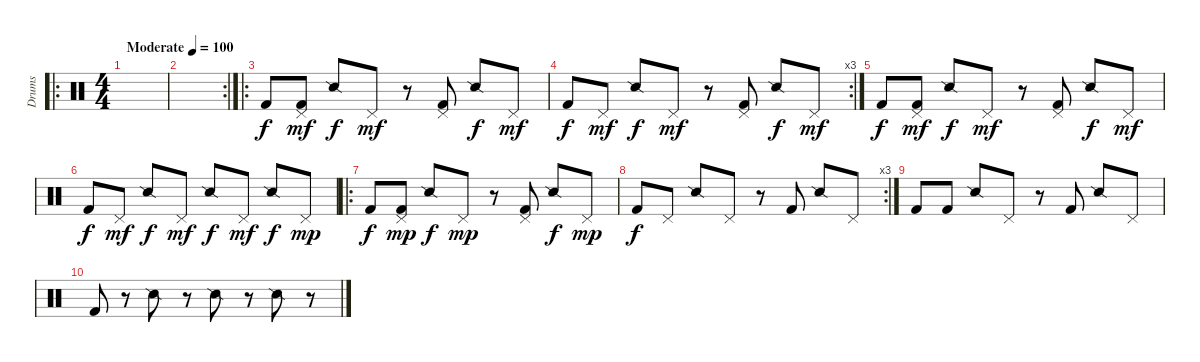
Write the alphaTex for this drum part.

\track ("Drums" "Drums") {instrument percussion}
\staff {score}
\articulation defaults
\ro
\ts (4 4)
\tempo (100 "Moderate")
\clef neutral
\ks c
|
\rc 2
|
\ro "Kick (hit) 2".8
("Kick (hit) 2" "Pedal Hi-Hat (hit)").8{dy mf} "Snare (side stick) 2".8{dy f} "Pedal Hi-Hat (hit)".8{dy mf} r.8 ("Kick (hit) 2" "Pedal Hi-Hat (hit)").8 "Snare (side stick) 2".8{dy f} "Pedal Hi-Hat (hit)".8{dy mf} |
\rc 3 "Kick (hit) 2".8{dy f} "Pedal Hi-Hat (hit)".8{dy mf} "Snare (side stick) 2".8{dy f} "Pedal Hi-Hat (hit)".8{dy mf}
r.8 ("Kick (hit) 2" "Pedal Hi-Hat (hit)").8 "Snare (side stick) 2".8{dy f} "Pedal Hi-Hat (hit)".8{dy mf} |
"Kick (hit) 2".8{dy f} ("Kick (hit) 2" "Pedal Hi-Hat (hit)").8{dy mf} "Snare (side stick) 2".8{dy f} "Pedal Hi-Hat (hit)".8{dy mf} r.8 ("Kick (hit) 2" "Pedal Hi-Hat (hit)").8 "Snare (side stick) 2".8{dy f} "Pedal Hi-Hat (hit)".8{dy mf} |
"Kick (hit) 2".8{dy f} "Pedal Hi-Hat (hit)".8{dy mf} "Snare (side stick) 2".8{dy f} "Pedal Hi-Hat (hit)".8{dy mf} "Snare (side stick) 2".8{dy f} "Pedal Hi-Hat (hit)".8{dy mf} "Snare (side stick) 2".8{dy f} "Pedal Hi-Hat (hit)".8{dy mp} |
\ro "Kick (hit) 2".8{dy f}
("Kick (hit) 2" "Pedal Hi-Hat (hit)").8{dy mp} "Snare (side stick) 2".8{dy f} "Pedal Hi-Hat (hit)".8{dy mp} r.8 ("Kick (hit) 2" "Pedal Hi-Hat (hit)").8 "Snare (side stick) 2".8{dy f} "Pedal Hi-Hat (hit)".8{dy mp} |
\rc 3 "Kick (hit) 2".8{dy f} "Pedal Hi-Hat (hit)".8 "Snare (side stick) 2".8 "Pedal Hi-Hat (hit)".8
r.8 "Kick (hit) 2".8 "Snare (side stick) 2".8 "Pedal Hi-Hat (hit)".8 |
"Kick (hit) 2".8 "Kick (hit) 2".8 "Snare (side stick) 2".8 "Pedal Hi-Hat (hit)".8 r.8 "Kick (hit) 2".8 "Snare (side stick) 2".8 "Pedal Hi-Hat (hit)".8 |
"Kick (hit) 2".8 r.8 "Snare (side stick) 2".8 r.8 "Snare (side stick) 2".8 r.8 "Snare (side stick) 2".8 r.8
